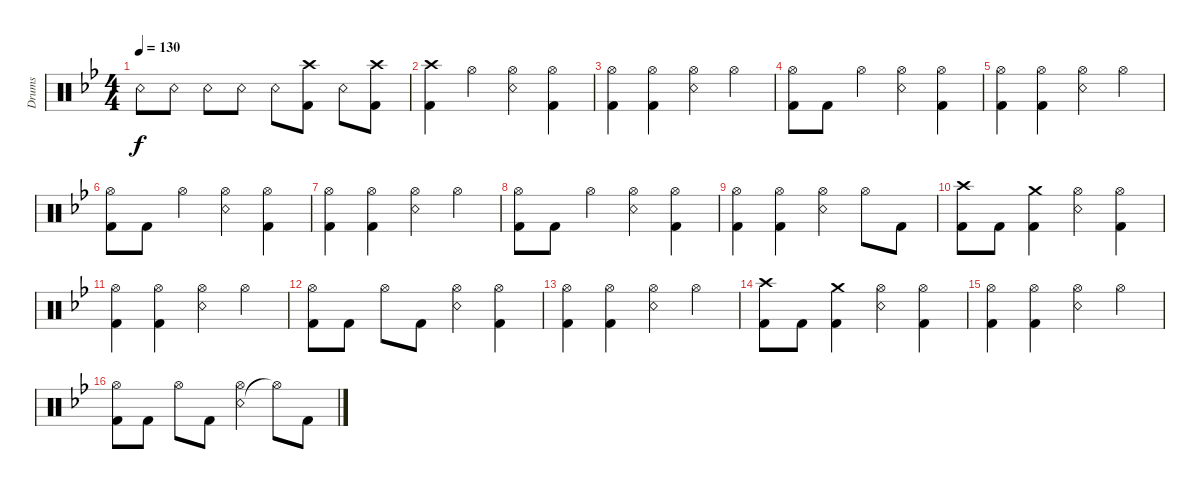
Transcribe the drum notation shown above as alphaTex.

\bracketExtendMode groupsimilarinstruments
\otherSystemsTrackNameOrientation horizontal
\track ("Schlagzeug" "Drums") {instrument percussion}
\staff {score}
\articulation defaults
\ts (4 4)
\tempo 130
\clef neutral
\ks bb "Snare (rim shot)"{acc forcenatural}.8{dy f beam Down} "Snare (rim shot)"{acc forcenatural}.8{beam Down} "Snare (rim shot)"{acc forcenatural}.8{beam Down} "Snare (rim shot)"{acc forcenatural}.8{beam Down} "Snare (rim shot)"{acc forcenatural}.8{beam Down}
("Kick (hit) 2"{acc forcenatural} "Crash high (hit)"{acc forcenatural}).8{beam Down} "Snare (rim shot)"{acc forcenatural}.8{beam Down} ("Kick (hit) 2"{acc forcenatural} "Crash high (hit)"{acc forcenatural}).8{beam Down} |
("Kick (hit) 2"{acc forcenatural} "Crash high (hit)"{acc forcenatural}).4{beam Down} "Hi-Hat (open)"{acc forcenatural}.4{beam Down} ("Snare (rim shot)"{acc forcenatural} "Hi-Hat (open)"{acc forcenatural}).4{beam Down} ("Kick (hit) 2"{acc forcenatural} "Hi-Hat (open)"{acc forcenatural}).4{beam Down} |
("Kick (hit) 2"{acc forcenatural} "Hi-Hat (open)"{acc forcenatural}).4{beam Down} ("Kick (hit) 2"{acc forcenatural} "Hi-Hat (open)"{acc forcenatural}).4{beam Down} ("Snare (rim shot)"{acc forcenatural} "Hi-Hat (open)"{acc forcenatural}).4{beam Down} "Hi-Hat (open)"{acc forcenatural}.4{beam Down} |
("Kick (hit) 2"{acc forcenatural} "Hi-Hat (open)"{acc forcenatural}).8{beam Down} "Kick (hit) 2"{acc forcenatural}.8{beam Down} "Hi-Hat (open)"{acc forcenatural}.4{beam Down} ("Snare (rim shot)"{acc forcenatural} "Hi-Hat (open)"{acc forcenatural}).4{beam Down} ("Kick (hit) 2"{acc forcenatural} "Hi-Hat (open)"{acc forcenatural}).4{beam Down} |
("Kick (hit) 2"{acc forcenatural} "Hi-Hat (open)"{acc forcenatural}).4{beam Down} ("Kick (hit) 2"{acc forcenatural} "Hi-Hat (open)"{acc forcenatural}).4{beam Down} ("Snare (rim shot)"{acc forcenatural} "Hi-Hat (open)"{acc forcenatural}).4{beam Down} "Hi-Hat (open)"{acc forcenatural}.4{beam Down} |
("Kick (hit) 2"{acc forcenatural} "Hi-Hat (open)"{acc forcenatural}).8{beam Down} "Kick (hit) 2"{acc forcenatural}.8{beam Down} "Hi-Hat (open)"{acc forcenatural}.4{beam Down} ("Snare (rim shot)"{acc forcenatural} "Hi-Hat (open)"{acc forcenatural}).4{beam Down} ("Kick (hit) 2"{acc forcenatural} "Hi-Hat (open)"{acc forcenatural}).4{beam Down} |
("Kick (hit) 2"{acc forcenatural} "Hi-Hat (open)"{acc forcenatural}).4{beam Down} ("Kick (hit) 2"{acc forcenatural} "Hi-Hat (open)"{acc forcenatural}).4{beam Down} ("Snare (rim shot)"{acc forcenatural} "Hi-Hat (open)"{acc forcenatural}).4{beam Down} "Hi-Hat (open)"{acc forcenatural}.4{beam Down} |
("Kick (hit) 2"{acc forcenatural} "Hi-Hat (open)"{acc forcenatural}).8{beam Down} "Kick (hit) 2"{acc forcenatural}.8{beam Down} "Hi-Hat (open)"{acc forcenatural}.4{beam Down} ("Snare (rim shot)"{acc forcenatural} "Hi-Hat (open)"{acc forcenatural}).4{beam Down} ("Hi-Hat (open)"{acc forcenatural} "Kick (hit) 2"{acc forcenatural}).4{beam Down} |
("Kick (hit) 2"{acc forcenatural} "Hi-Hat (open)"{acc forcenatural}).4{beam Down} ("Kick (hit) 2"{acc forcenatural} "Hi-Hat (open)"{acc forcenatural}).4{beam Down} ("Snare (rim shot)"{acc forcenatural} "Hi-Hat (open)"{acc forcenatural}).4{beam Down} "Hi-Hat (open)"{acc forcenatural}.8{beam Down} "Kick (hit) 2"{acc forcenatural}.8{beam Down} |
("Kick (hit) 2"{acc forcenatural} "Crash high (hit)"{acc forcenatural}).8{beam Down} "Kick (hit) 2"{acc forcenatural}.8{beam Down} ("Kick (hit) 2"{acc forcenatural} "Crash medium (hit)"{acc forcenatural}).4{beam Down} ("Snare (rim shot)"{acc forcenatural} "Hi-Hat (open)"{acc forcenatural}).4{beam Down} ("Kick (hit) 2"{acc forcenatural} "Hi-Hat (open)"{acc forcenatural}).4{beam Down} |
("Kick (hit) 2"{acc forcenatural} "Hi-Hat (open)"{acc forcenatural}).4{beam Down} ("Kick (hit) 2"{acc forcenatural} "Hi-Hat (open)"{acc forcenatural}).4{beam Down} ("Snare (rim shot)"{acc forcenatural} "Hi-Hat (open)"{acc forcenatural}).4{beam Down} "Hi-Hat (open)"{acc forcenatural}.4{beam Down} |
("Kick (hit) 2"{acc forcenatural} "Hi-Hat (open)"{acc forcenatural}).8{beam Down} "Kick (hit) 2"{acc forcenatural}.8{beam Down} "Hi-Hat (open)"{acc forcenatural}.8{beam Down} "Kick (hit) 2"{acc forcenatural}.8{beam Down} ("Snare (rim shot)"{acc forcenatural} "Hi-Hat (open)"{acc forcenatural}).4{beam Down} ("Kick (hit) 2"{acc forcenatural} "Hi-Hat (open)"{acc forcenatural}).4{beam Down} |
("Kick (hit) 2"{acc forcenatural} "Hi-Hat (open)"{acc forcenatural}).4{beam Down} ("Kick (hit) 2"{acc forcenatural} "Hi-Hat (open)"{acc forcenatural}).4{beam Down} ("Snare (rim shot)"{acc forcenatural} "Hi-Hat (open)"{acc forcenatural}).4{beam Down} "Hi-Hat (open)"{acc forcenatural}.4{beam Down} |
("Kick (hit) 2"{acc forcenatural} "Crash high (hit)"{acc forcenatural}).8{beam Down} "Kick (hit) 2"{acc forcenatural}.8{beam Down} ("Kick (hit) 2"{acc forcenatural} "Crash medium (hit)"{acc forcenatural}).4{beam Down} ("Snare (rim shot)"{acc forcenatural} "Hi-Hat (open)"{acc forcenatural}).4{beam Down} ("Kick (hit) 2"{acc forcenatural} "Hi-Hat (open)"{acc forcenatural}).4{beam Down} |
("Kick (hit) 2"{acc forcenatural} "Hi-Hat (open)"{acc forcenatural}).4{beam Down} ("Kick (hit) 2"{acc forcenatural} "Hi-Hat (open)"{acc forcenatural}).4{beam Down} ("Snare (rim shot)"{acc forcenatural} "Hi-Hat (open)"{acc forcenatural}).4{beam Down} "Hi-Hat (open)"{acc forcenatural}.4{beam Down} |
("Kick (hit) 2"{acc forcenatural} "Hi-Hat (open)"{acc forcenatural}).8{beam Down} "Kick (hit) 2"{acc forcenatural}.8{beam Down} "Hi-Hat (open)"{acc forcenatural}.8{beam Down} "Kick (hit) 2"{acc forcenatural}.8{beam Down} ("Snare (rim shot)"{acc forcenatural} "Hi-Hat (open)"{acc forcenatural}).4{beam Down} "Hi-Hat (open)"{t acc forcenatural}.8{beam Down} "Kick (hit) 2"{acc forcenatural}.8{beam Down}
